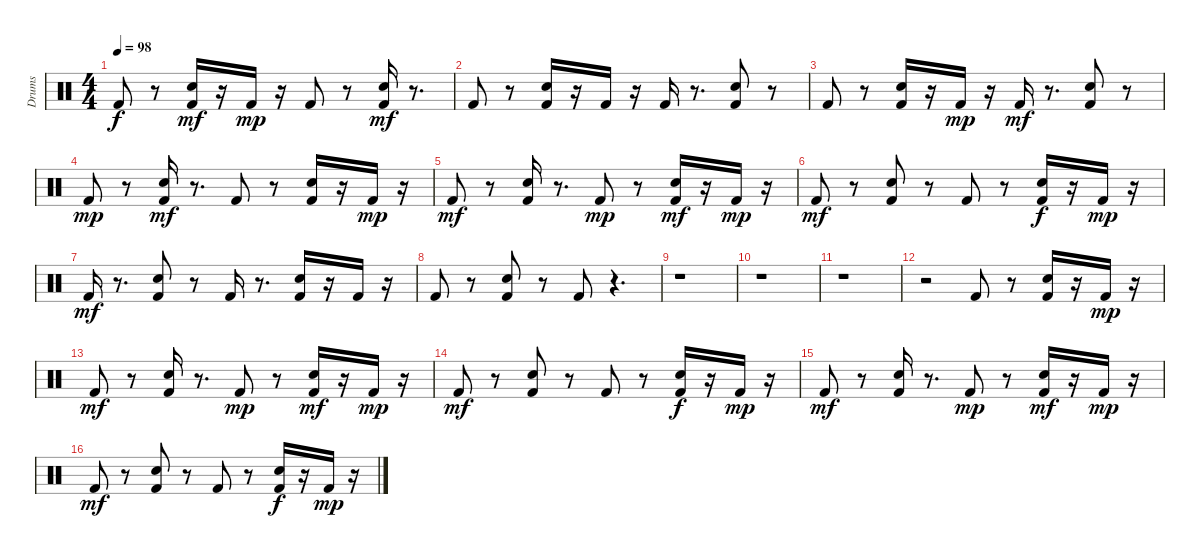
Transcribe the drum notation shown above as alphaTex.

\track ("Drums" "Drums") {instrument percussion}
\staff {score}
\articulation defaults
\ts (4 4)
\tempo 98
\clef neutral
\ks c "Kick (hit) 2".8{dy f}
r.8 ("Snare (hit) 2" "Kick (hit) 2").16{dy mf} r.16 "Kick (hit) 2".16{dy mp} r.16 "Kick (hit) 2".8 r.8 ("Snare (hit) 2" "Kick (hit) 2").16{dy mf} r.8{d} |
"Kick (hit) 2".8 r.8 ("Kick (hit) 2" "Snare (hit) 2").16 r.16 "Kick (hit) 2".16 r.16 "Kick (hit) 2".16 r.8{d} ("Kick (hit) 2" "Snare (hit) 2").8 r.8 |
"Kick (hit) 2".8 r.8 ("Kick (hit) 2" "Snare (hit) 2").16 r.16 "Kick (hit) 2".16{dy mp} r.16 "Kick (hit) 2".16{dy mf} r.8{d} ("Kick (hit) 2" "Snare (hit) 2").8 r.8 |
"Kick (hit) 2".8{dy mp} r.8 ("Kick (hit) 2" "Snare (hit) 2").16{dy mf} r.8{d} "Kick (hit) 2".8 r.8 ("Kick (hit) 2" "Snare (hit) 2").16 r.16 "Kick (hit) 2".16{dy mp} r.16 |
"Kick (hit) 2".8{dy mf} r.8 ("Kick (hit) 2" "Snare (hit) 2").16 r.8{d} "Kick (hit) 2".8{dy mp} r.8 ("Kick (hit) 2" "Snare (hit) 2").16{dy mf} r.16 "Kick (hit) 2".16{dy mp} r.16 |
"Kick (hit) 2".8{dy mf} r.8 ("Kick (hit) 2" "Snare (hit) 2").8 r.8 "Kick (hit) 2".8 r.8 ("Kick (hit) 2" "Snare (hit) 2").16{dy f} r.16 "Kick (hit) 2".16{dy mp} r.16 |
"Kick (hit) 2".16{dy mf} r.8{d} ("Kick (hit) 2" "Snare (hit) 2").8 r.8 "Kick (hit) 2".16 r.8{d} ("Kick (hit) 2" "Snare (hit) 2").16 r.16 "Kick (hit) 2".16 r.16 |
"Kick (hit) 2".8 r.8 ("Kick (hit) 2" "Snare (hit) 2").8 r.8 "Kick (hit) 2".8 r.4{d} |
r.1 |
r.1 |
r.1 |
r.2 "Kick (hit) 2".8 r.8 ("Kick (hit) 2" "Snare (hit) 2").16 r.16 "Kick (hit) 2".16{dy mp} r.16 |
"Kick (hit) 2".8{dy mf} r.8 ("Kick (hit) 2" "Snare (hit) 2").16 r.8{d} "Kick (hit) 2".8{dy mp} r.8 ("Kick (hit) 2" "Snare (hit) 2").16{dy mf} r.16 "Kick (hit) 2".16{dy mp} r.16 |
"Kick (hit) 2".8{dy mf} r.8 ("Kick (hit) 2" "Snare (hit) 2").8 r.8 "Kick (hit) 2".8 r.8 ("Kick (hit) 2" "Snare (hit) 2").16{dy f} r.16 "Kick (hit) 2".16{dy mp} r.16 |
"Kick (hit) 2".8{dy mf} r.8 ("Kick (hit) 2" "Snare (hit) 2").16 r.8{d} "Kick (hit) 2".8{dy mp} r.8 ("Kick (hit) 2" "Snare (hit) 2").16{dy mf} r.16 "Kick (hit) 2".16{dy mp} r.16 |
"Kick (hit) 2".8{dy mf} r.8 ("Kick (hit) 2" "Snare (hit) 2").8 r.8 "Kick (hit) 2".8 r.8 ("Kick (hit) 2" "Snare (hit) 2").16{dy f} r.16 "Kick (hit) 2".16{dy mp} r.16
